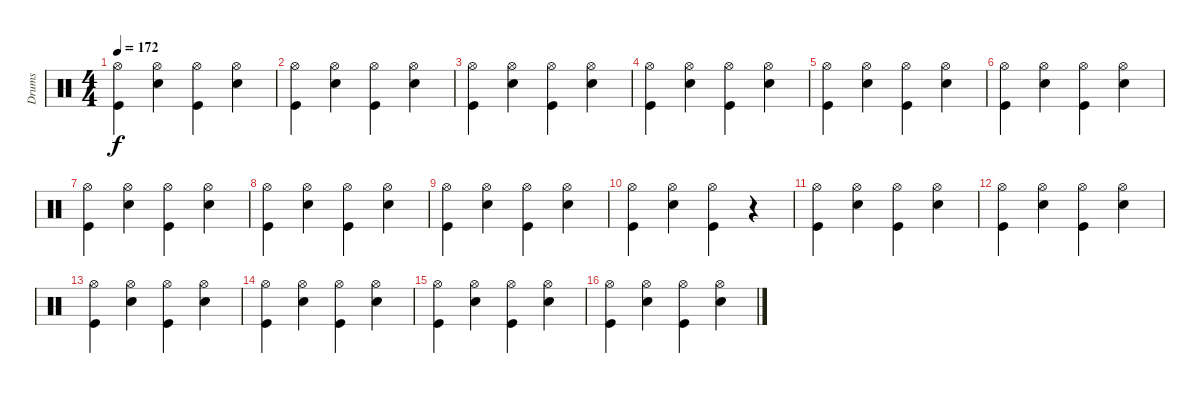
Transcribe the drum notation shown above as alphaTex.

\track ("Drums" "Drums") {instrument percussion}
\staff {score}
\articulation defaults
\ts (4 4)
\tempo 172
\clef neutral
\ks c
("Kick (hit)" "Hi-Hat (open)").4{dy f} ("Snare (hit) 2" "Hi-Hat (open)").4 ("Kick (hit)" "Hi-Hat (open)").4 ("Snare (hit) 2" "Hi-Hat (open)").4 |
("Kick (hit)" "Hi-Hat (open)").4 ("Snare (hit) 2" "Hi-Hat (open)").4 ("Kick (hit)" "Hi-Hat (open)").4 ("Snare (hit) 2" "Hi-Hat (open)").4 |
("Kick (hit)" "Hi-Hat (open)").4 ("Snare (hit) 2" "Hi-Hat (open)").4 ("Kick (hit)" "Hi-Hat (open)").4 ("Snare (hit) 2" "Hi-Hat (open)").4 |
("Kick (hit)" "Hi-Hat (open)").4 ("Snare (hit) 2" "Hi-Hat (open)").4 ("Kick (hit)" "Hi-Hat (open)").4 ("Snare (hit) 2" "Hi-Hat (open)").4 |
("Kick (hit)" "Hi-Hat (open)").4 ("Snare (hit) 2" "Hi-Hat (open)").4 ("Kick (hit)" "Hi-Hat (open)").4 ("Snare (hit) 2" "Hi-Hat (open)").4 |
("Kick (hit)" "Hi-Hat (open)").4 ("Snare (hit) 2" "Hi-Hat (open)").4 ("Kick (hit)" "Hi-Hat (open)").4 ("Snare (hit) 2" "Hi-Hat (open)").4 |
("Kick (hit)" "Hi-Hat (open)").4 ("Snare (hit) 2" "Hi-Hat (open)").4 ("Kick (hit)" "Hi-Hat (open)").4 ("Snare (hit) 2" "Hi-Hat (open)").4 |
("Kick (hit)" "Hi-Hat (open)").4 ("Snare (hit) 2" "Hi-Hat (open)").4 ("Kick (hit)" "Hi-Hat (open)").4 ("Snare (hit) 2" "Hi-Hat (open)").4 |
("Kick (hit)" "Hi-Hat (open)").4 ("Snare (hit) 2" "Hi-Hat (open)").4 ("Kick (hit)" "Hi-Hat (open)").4 ("Snare (hit) 2" "Hi-Hat (open)").4 |
("Kick (hit)" "Hi-Hat (open)").4 ("Snare (hit) 2" "Hi-Hat (open)").4 ("Kick (hit)" "Hi-Hat (open)").4 r.4 |
("Kick (hit)" "Hi-Hat (open)").4 ("Snare (hit) 2" "Hi-Hat (open)").4 ("Kick (hit)" "Hi-Hat (open)").4 ("Snare (hit) 2" "Hi-Hat (open)").4 |
("Kick (hit)" "Hi-Hat (open)").4 ("Snare (hit) 2" "Hi-Hat (open)").4 ("Kick (hit)" "Hi-Hat (open)").4 ("Snare (hit) 2" "Hi-Hat (open)").4 |
("Kick (hit)" "Hi-Hat (open)").4 ("Snare (hit) 2" "Hi-Hat (open)").4 ("Kick (hit)" "Hi-Hat (open)").4 ("Snare (hit) 2" "Hi-Hat (open)").4 |
("Kick (hit)" "Hi-Hat (open)").4 ("Snare (hit) 2" "Hi-Hat (open)").4 ("Kick (hit)" "Hi-Hat (open)").4 ("Snare (hit) 2" "Hi-Hat (open)").4 |
("Kick (hit)" "Hi-Hat (open)").4 ("Snare (hit) 2" "Hi-Hat (open)").4 ("Kick (hit)" "Hi-Hat (open)").4 ("Snare (hit) 2" "Hi-Hat (open)").4 |
("Kick (hit)" "Hi-Hat (open)").4 ("Snare (hit) 2" "Hi-Hat (open)").4 ("Kick (hit)" "Hi-Hat (open)").4 ("Snare (hit) 2" "Hi-Hat (open)").4
